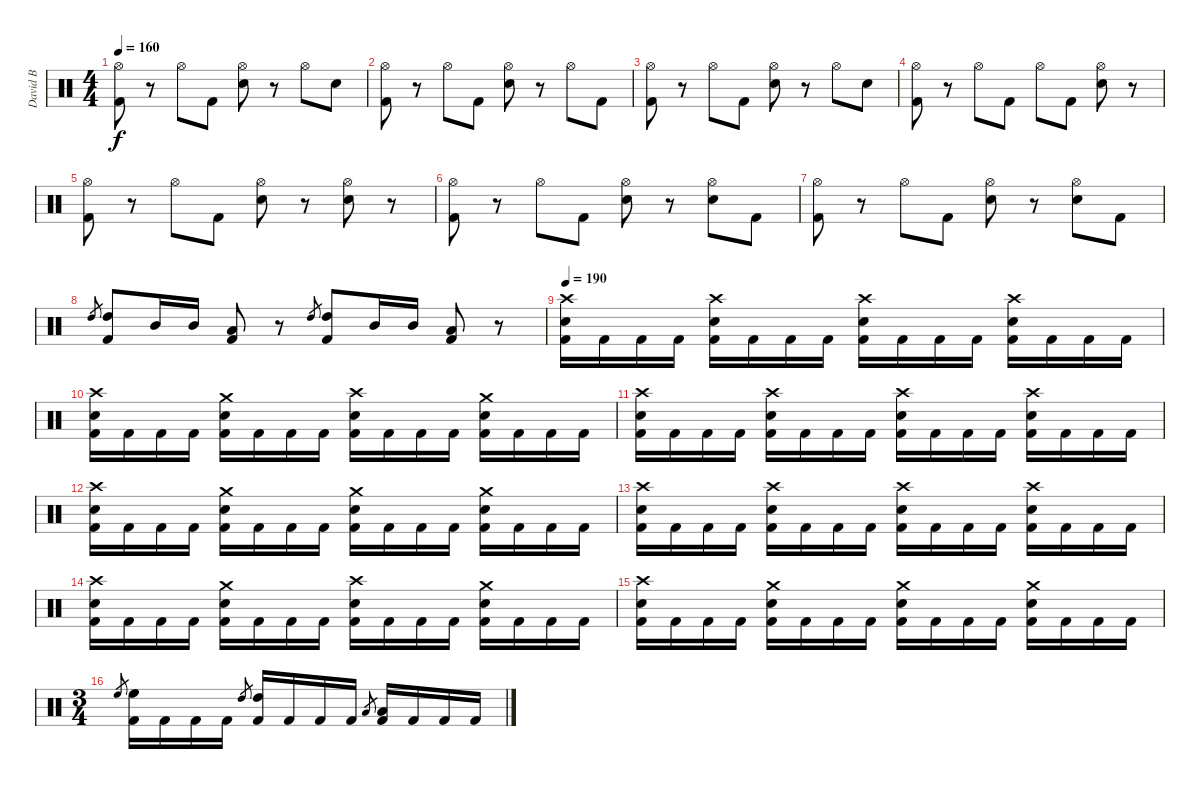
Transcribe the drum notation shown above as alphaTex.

\track ("David B" "David B") {instrument percussion}
\staff {score}
\articulation defaults
\ts (4 4)
\tempo 160
\clef neutral
\ks c
("Hi-Hat (open)" "Kick (hit) 2").8{dy f} r.8 "Hi-Hat (open)".8 "Kick (hit) 2".8 ("Hi-Hat (open)" "Electric Snare (hit)").8 r.8 "Hi-Hat (open)".8 "Electric Snare (hit)".8 |
("Hi-Hat (open)" "Kick (hit) 2").8 r.8 "Hi-Hat (open)".8 "Kick (hit) 2".8 ("Hi-Hat (open)" "Electric Snare (hit)").8 r.8 "Hi-Hat (open)".8 "Kick (hit) 2".8 |
("Hi-Hat (open)" "Kick (hit) 2").8 r.8 "Hi-Hat (open)".8 "Kick (hit) 2".8 ("Hi-Hat (open)" "Electric Snare (hit)").8 r.8 "Hi-Hat (open)".8 "Electric Snare (hit)".8 |
("Hi-Hat (open)" "Kick (hit) 2").8 r.8 "Hi-Hat (open)".8 "Kick (hit) 2".8 "Hi-Hat (open)".8 "Kick (hit) 2".8 ("Hi-Hat (open)" "Electric Snare (hit)").8 r.8 |
("Hi-Hat (open)" "Kick (hit) 2").8 r.8 "Hi-Hat (open)".8 "Kick (hit) 2".8 ("Hi-Hat (open)" "Electric Snare (hit)").8 r.8 ("Hi-Hat (open)" "Electric Snare (hit)").8 r.8 |
("Hi-Hat (open)" "Kick (hit) 2").8 r.8 "Hi-Hat (open)".8 "Kick (hit) 2".8 ("Hi-Hat (open)" "Electric Snare (hit)").8 r.8 ("Hi-Hat (open)" "Electric Snare (hit)").8 "Kick (hit) 2".8 |
("Hi-Hat (open)" "Kick (hit) 2").8 r.8 "Hi-Hat (open)".8 "Kick (hit) 2".8 ("Hi-Hat (open)" "Electric Snare (hit)").8 r.8 ("Hi-Hat (open)" "Electric Snare (hit)").8 "Kick (hit) 2".8 |
"High Tom (hit)".8{gr} ("High Tom (hit)" "Kick (hit) 2").8 "Mid Tom (hit)".16 "Mid Tom (hit)".16 ("Low Tom (hit)" "Kick (hit) 2").8 r.8 "High Tom (hit)".8{gr} ("High Tom (hit)" "Kick (hit) 2").8 "Mid Tom (hit)".16 "Mid Tom (hit)".16 ("Low Tom (hit)" "Kick (hit) 2").8 r.8 |
\tempo 180
\tempo 190
("Crash high (hit)" "Electric Snare (hit)" "Kick (hit) 2").16 "Kick (hit) 2".16 "Kick (hit) 2".16 "Kick (hit) 2".16 ("Crash high (hit)" "Electric Snare (hit)" "Kick (hit) 2").16 "Kick (hit) 2".16 "Kick (hit) 2".16 "Kick (hit) 2".16 ("Crash high (hit)" "Electric Snare (hit)" "Kick (hit) 2").16 "Kick (hit) 2".16 "Kick (hit) 2".16 "Kick (hit) 2".16 ("Crash high (hit)" "Electric Snare (hit)" "Kick (hit) 2").16 "Kick (hit) 2".16 "Kick (hit) 2".16 "Kick (hit) 2".16 |
("Crash high (hit)" "Electric Snare (hit)" "Kick (hit) 2").16 "Kick (hit) 2".16 "Kick (hit) 2".16 "Kick (hit) 2".16 ("Crash medium (hit)" "Electric Snare (hit)" "Kick (hit) 2").16 "Kick (hit) 2".16 "Kick (hit) 2".16 "Kick (hit) 2".16 ("Crash high (hit)" "Electric Snare (hit)" "Kick (hit) 2").16 "Kick (hit) 2".16 "Kick (hit) 2".16 "Kick (hit) 2".16 ("Crash medium (hit)" "Electric Snare (hit)" "Kick (hit) 2").16 "Kick (hit) 2".16 "Kick (hit) 2".16 "Kick (hit) 2".16 |
("Crash high (hit)" "Electric Snare (hit)" "Kick (hit) 2").16 "Kick (hit) 2".16 "Kick (hit) 2".16 "Kick (hit) 2".16 ("Crash high (hit)" "Electric Snare (hit)" "Kick (hit) 2").16 "Kick (hit) 2".16 "Kick (hit) 2".16 "Kick (hit) 2".16 ("Crash high (hit)" "Electric Snare (hit)" "Kick (hit) 2").16 "Kick (hit) 2".16 "Kick (hit) 2".16 "Kick (hit) 2".16 ("Crash high (hit)" "Electric Snare (hit)" "Kick (hit) 2").16 "Kick (hit) 2".16 "Kick (hit) 2".16 "Kick (hit) 2".16 |
("Crash high (hit)" "Electric Snare (hit)" "Kick (hit) 2").16 "Kick (hit) 2".16 "Kick (hit) 2".16 "Kick (hit) 2".16 ("Crash medium (hit)" "Electric Snare (hit)" "Kick (hit) 2").16 "Kick (hit) 2".16 "Kick (hit) 2".16 "Kick (hit) 2".16 ("Crash medium (hit)" "Electric Snare (hit)" "Kick (hit) 2").16 "Kick (hit) 2".16 "Kick (hit) 2".16 "Kick (hit) 2".16 ("Crash medium (hit)" "Electric Snare (hit)" "Kick (hit) 2").16 "Kick (hit) 2".16 "Kick (hit) 2".16 "Kick (hit) 2".16 |
("Crash high (hit)" "Electric Snare (hit)" "Kick (hit) 2").16 "Kick (hit) 2".16 "Kick (hit) 2".16 "Kick (hit) 2".16 ("Crash high (hit)" "Electric Snare (hit)" "Kick (hit) 2").16 "Kick (hit) 2".16 "Kick (hit) 2".16 "Kick (hit) 2".16 ("Crash high (hit)" "Electric Snare (hit)" "Kick (hit) 2").16 "Kick (hit) 2".16 "Kick (hit) 2".16 "Kick (hit) 2".16 ("Crash high (hit)" "Electric Snare (hit)" "Kick (hit) 2").16 "Kick (hit) 2".16 "Kick (hit) 2".16 "Kick (hit) 2".16 |
("Crash high (hit)" "Electric Snare (hit)" "Kick (hit) 2").16 "Kick (hit) 2".16 "Kick (hit) 2".16 "Kick (hit) 2".16 ("Crash medium (hit)" "Electric Snare (hit)" "Kick (hit) 2").16 "Kick (hit) 2".16 "Kick (hit) 2".16 "Kick (hit) 2".16 ("Crash high (hit)" "Electric Snare (hit)" "Kick (hit) 2").16 "Kick (hit) 2".16 "Kick (hit) 2".16 "Kick (hit) 2".16 ("Crash medium (hit)" "Electric Snare (hit)" "Kick (hit) 2").16 "Kick (hit) 2".16 "Kick (hit) 2".16 "Kick (hit) 2".16 |
("Crash high (hit)" "Electric Snare (hit)" "Kick (hit) 2").16 "Kick (hit) 2".16 "Kick (hit) 2".16 "Kick (hit) 2".16 ("Crash medium (hit)" "Electric Snare (hit)" "Kick (hit) 2").16 "Kick (hit) 2".16 "Kick (hit) 2".16 "Kick (hit) 2".16 ("Crash medium (hit)" "Electric Snare (hit)" "Kick (hit) 2").16 "Kick (hit) 2".16 "Kick (hit) 2".16 "Kick (hit) 2".16 ("Crash medium (hit)" "Electric Snare (hit)" "Kick (hit) 2").16 "Kick (hit) 2".16 "Kick (hit) 2".16 "Kick (hit) 2".16 |
\ts (3 4)
"High Floor Tom (hit)".8{gr} ("High Floor Tom (hit)" "Kick (hit) 2").16 "Kick (hit) 2".16 "Kick (hit) 2".16 "Kick (hit) 2".16 "High Tom (hit)".8{gr} ("High Tom (hit)" "Kick (hit) 2").16 "Kick (hit) 2".16 "Kick (hit) 2".16 "Kick (hit) 2".16 "Low Tom (hit)".8{gr} ("Low Tom (hit)" "Kick (hit) 2").16 "Kick (hit) 2".16 "Kick (hit) 2".16 "Kick (hit) 2".16
